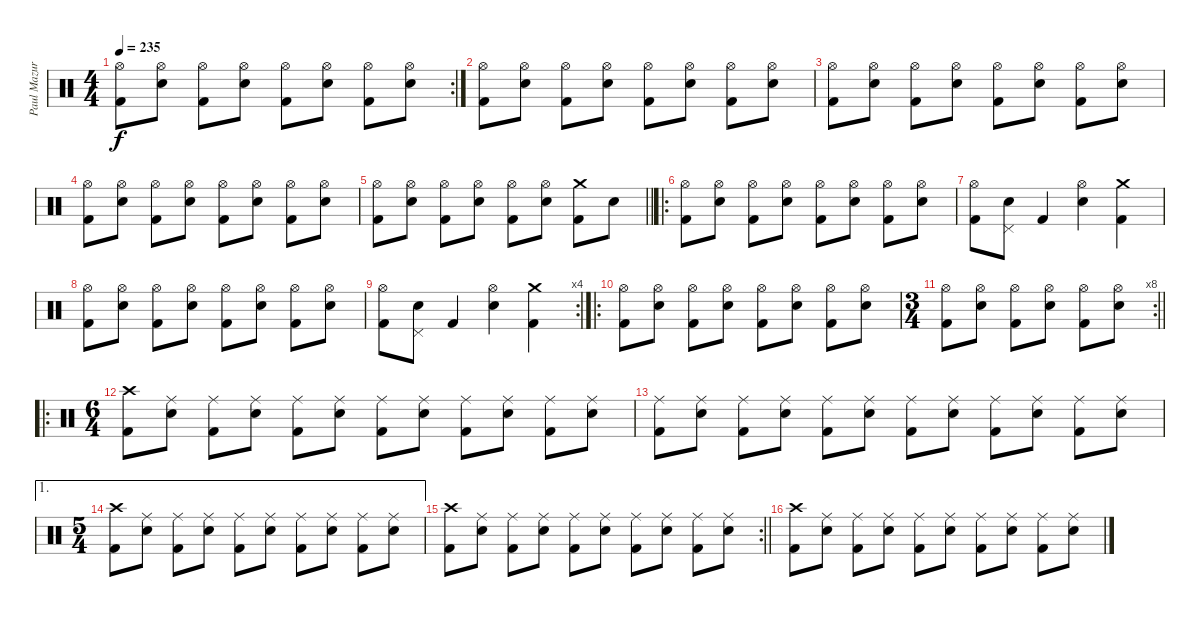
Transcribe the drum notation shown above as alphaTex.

\track ("Paul Mazurkiewicz" "Paul Mazur") {instrument percussion}
\staff {score}
\articulation defaults
\rc 2
\ts (4 4)
\tempo 235
\clef neutral
\ks c
("Hi-Hat (open)" "Kick (hit) 2").8{dy f} ("Hi-Hat (open)" "Electric Snare (hit)").8 ("Hi-Hat (open)" "Kick (hit) 2").8 ("Hi-Hat (open)" "Electric Snare (hit)").8 ("Hi-Hat (open)" "Kick (hit) 2").8 ("Hi-Hat (open)" "Electric Snare (hit)").8 ("Hi-Hat (open)" "Kick (hit) 2").8 ("Hi-Hat (open)" "Electric Snare (hit)").8 |
("Hi-Hat (open)" "Kick (hit) 2").8 ("Hi-Hat (open)" "Electric Snare (hit)").8 ("Hi-Hat (open)" "Kick (hit) 2").8 ("Hi-Hat (open)" "Electric Snare (hit)").8 ("Hi-Hat (open)" "Kick (hit) 2").8 ("Hi-Hat (open)" "Electric Snare (hit)").8 ("Hi-Hat (open)" "Kick (hit) 2").8 ("Hi-Hat (open)" "Electric Snare (hit)").8 |
("Hi-Hat (open)" "Kick (hit) 2").8 ("Hi-Hat (open)" "Electric Snare (hit)").8 ("Hi-Hat (open)" "Kick (hit) 2").8 ("Hi-Hat (open)" "Electric Snare (hit)").8 ("Hi-Hat (open)" "Kick (hit) 2").8 ("Hi-Hat (open)" "Electric Snare (hit)").8 ("Hi-Hat (open)" "Kick (hit) 2").8 ("Hi-Hat (open)" "Electric Snare (hit)").8 |
("Hi-Hat (open)" "Kick (hit) 2").8 ("Hi-Hat (open)" "Electric Snare (hit)").8 ("Hi-Hat (open)" "Kick (hit) 2").8 ("Hi-Hat (open)" "Electric Snare (hit)").8 ("Hi-Hat (open)" "Kick (hit) 2").8 ("Hi-Hat (open)" "Electric Snare (hit)").8 ("Hi-Hat (open)" "Kick (hit) 2").8 ("Hi-Hat (open)" "Electric Snare (hit)").8 |
\barLineRight lightlight
("Hi-Hat (open)" "Kick (hit) 2").8 ("Hi-Hat (open)" "Electric Snare (hit)").8 ("Hi-Hat (open)" "Kick (hit) 2").8 ("Hi-Hat (open)" "Electric Snare (hit)").8 ("Hi-Hat (open)" "Kick (hit) 2").8 ("Hi-Hat (open)" "Electric Snare (hit)").8 ("Crash medium (hit)" "Kick (hit) 2").8 "Electric Snare (hit)".8 |
\ro
\section ("" "")
("Hi-Hat (open)" "Kick (hit) 2").8 ("Hi-Hat (open)" "Electric Snare (hit)").8 ("Hi-Hat (open)" "Kick (hit) 2").8 ("Hi-Hat (open)" "Electric Snare (hit)").8 ("Hi-Hat (open)" "Kick (hit) 2").8 ("Hi-Hat (open)" "Electric Snare (hit)").8 ("Hi-Hat (open)" "Kick (hit) 2").8 ("Hi-Hat (open)" "Electric Snare (hit)").8 |
("Hi-Hat (open)" "Kick (hit) 2").8 ("Pedal Hi-Hat (hit)" "Electric Snare (hit)").8 "Kick (hit) 2".4 ("Hi-Hat (open)" "Electric Snare (hit)").4 ("Crash medium (hit)" "Kick (hit) 2").4 |
("Hi-Hat (open)" "Kick (hit) 2").8 ("Hi-Hat (open)" "Electric Snare (hit)").8 ("Hi-Hat (open)" "Kick (hit) 2").8 ("Hi-Hat (open)" "Electric Snare (hit)").8 ("Hi-Hat (open)" "Kick (hit) 2").8 ("Hi-Hat (open)" "Electric Snare (hit)").8 ("Hi-Hat (open)" "Kick (hit) 2").8 ("Hi-Hat (open)" "Electric Snare (hit)").8 |
\rc 4
("Hi-Hat (open)" "Kick (hit) 2").8 ("Pedal Hi-Hat (hit)" "Electric Snare (hit)").8 "Kick (hit) 2".4 ("Hi-Hat (open)" "Electric Snare (hit)").4 ("Crash medium (hit)" "Kick (hit) 2").4 |
\ro
("Hi-Hat (open)" "Kick (hit) 2").8 ("Hi-Hat (open)" "Electric Snare (hit)").8 ("Hi-Hat (open)" "Kick (hit) 2").8 ("Hi-Hat (open)" "Electric Snare (hit)").8 ("Hi-Hat (open)" "Kick (hit) 2").8 ("Hi-Hat (open)" "Electric Snare (hit)").8 ("Hi-Hat (open)" "Kick (hit) 2").8 ("Hi-Hat (open)" "Electric Snare (hit)").8 |
\rc 8
\ts (3 4)
\barLineRight lightlight
("Hi-Hat (open)" "Kick (hit) 2").8 ("Hi-Hat (open)" "Electric Snare (hit)").8 ("Hi-Hat (open)" "Kick (hit) 2").8 ("Hi-Hat (open)" "Electric Snare (hit)").8 ("Hi-Hat (open)" "Kick (hit) 2").8 ("Hi-Hat (open)" "Electric Snare (hit)").8 |
\ro
\ts (6 4)
\section ("" "")
("Crash high (hit)" "Kick (hit) 2").8 ("Ride (middle)" "Electric Snare (hit)").8 ("Ride (middle)" "Kick (hit) 2").8 ("Ride (middle)" "Electric Snare (hit)").8 ("Ride (middle)" "Kick (hit) 2").8 ("Ride (middle)" "Electric Snare (hit)").8 ("Ride (middle)" "Kick (hit) 2").8 ("Ride (middle)" "Electric Snare (hit)").8 ("Ride (middle)" "Kick (hit) 2").8 ("Ride (middle)" "Electric Snare (hit)").8 ("Ride (middle)" "Kick (hit) 2").8 ("Ride (middle)" "Electric Snare (hit)").8 |
("Ride (middle)" "Kick (hit) 2").8 ("Ride (middle)" "Electric Snare (hit)").8 ("Ride (middle)" "Kick (hit) 2").8 ("Ride (middle)" "Electric Snare (hit)").8 ("Ride (middle)" "Kick (hit) 2").8 ("Ride (middle)" "Electric Snare (hit)").8 ("Ride (middle)" "Kick (hit) 2").8 ("Ride (middle)" "Electric Snare (hit)").8 ("Ride (middle)" "Kick (hit) 2").8 ("Ride (middle)" "Electric Snare (hit)").8 ("Ride (middle)" "Kick (hit) 2").8 ("Ride (middle)" "Electric Snare (hit)").8 |
\ae 1
\ts (5 4)
("Crash high (hit)" "Kick (hit) 2").8 ("Ride (middle)" "Electric Snare (hit)").8 ("Ride (middle)" "Kick (hit) 2").8 ("Ride (middle)" "Electric Snare (hit)").8 ("Ride (middle)" "Kick (hit) 2").8 ("Ride (middle)" "Electric Snare (hit)").8 ("Ride (middle)" "Kick (hit) 2").8 ("Ride (middle)" "Electric Snare (hit)").8 ("Ride (middle)" "Kick (hit) 2").8 ("Ride (middle)" "Electric Snare (hit)").8 |
\rc 2
\barLineRight lightlight
("Crash high (hit)" "Kick (hit) 2").8 ("Ride (middle)" "Electric Snare (hit)").8 ("Ride (middle)" "Kick (hit) 2").8 ("Ride (middle)" "Electric Snare (hit)").8 ("Ride (middle)" "Kick (hit) 2").8 ("Ride (middle)" "Electric Snare (hit)").8 ("Ride (middle)" "Kick (hit) 2").8 ("Ride (middle)" "Electric Snare (hit)").8 ("Ride (middle)" "Kick (hit) 2").8 ("Ride (middle)" "Electric Snare (hit)").8 |
("Crash high (hit)" "Kick (hit) 2").8 ("Ride (middle)" "Electric Snare (hit)").8 ("Ride (middle)" "Kick (hit) 2").8 ("Ride (middle)" "Electric Snare (hit)").8 ("Ride (middle)" "Kick (hit) 2").8 ("Ride (middle)" "Electric Snare (hit)").8 ("Ride (middle)" "Kick (hit) 2").8 ("Ride (middle)" "Electric Snare (hit)").8 ("Ride (middle)" "Kick (hit) 2").8 ("Ride (middle)" "Electric Snare (hit)").8
